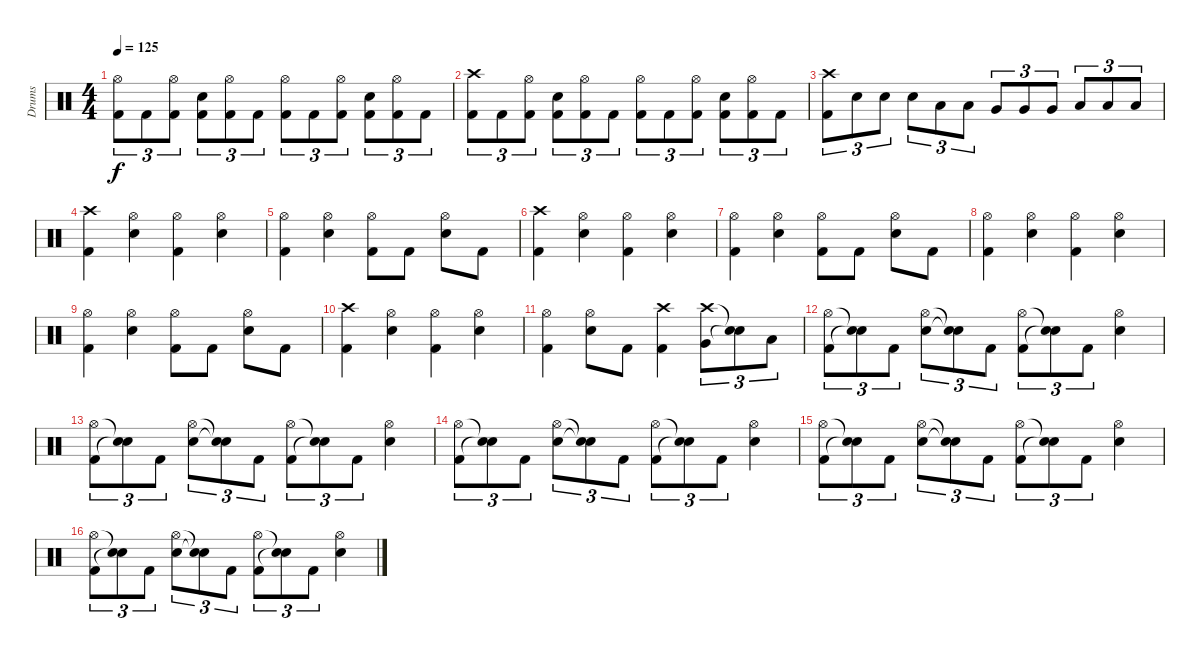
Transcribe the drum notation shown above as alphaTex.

\track ("Drums" "Drums") {instrument percussion}
\staff {score}
\articulation defaults
\ts (4 4)
\tempo 125
\clef neutral
\ks c
("Hi-Hat (open)" "Kick (hit) 2").8{tu (3 2) dy f} "Kick (hit) 2".8{tu (3 2)} ("Hi-Hat (open)" "Kick (hit) 2").8{tu (3 2)} ("Snare (hit) 2" "Kick (hit) 2").8{tu (3 2)} ("Hi-Hat (open)" "Kick (hit) 2").8{tu (3 2)} "Kick (hit) 2".8{tu (3 2)} ("Hi-Hat (open)" "Kick (hit) 2").8{tu (3 2)} "Kick (hit) 2".8{tu (3 2)} ("Hi-Hat (open)" "Kick (hit) 2").8{tu (3 2)} ("Snare (hit) 2" "Kick (hit) 2").8{tu (3 2)} ("Hi-Hat (open)" "Kick (hit) 2").8{tu (3 2)} "Kick (hit) 2".8{tu (3 2)} |
("Crash high (hit)" "Kick (hit) 2").8{tu (3 2)} "Kick (hit) 2".8{tu (3 2)} ("Hi-Hat (open)" "Kick (hit) 2").8{tu (3 2)} ("Snare (hit) 2" "Kick (hit) 2").8{tu (3 2)} ("Hi-Hat (open)" "Kick (hit) 2").8{tu (3 2)} "Kick (hit) 2".8{tu (3 2)} ("Hi-Hat (open)" "Kick (hit) 2").8{tu (3 2)} "Kick (hit) 2".8{tu (3 2)} ("Hi-Hat (open)" "Kick (hit) 2").8{tu (3 2)} ("Snare (hit) 2" "Kick (hit) 2").8{tu (3 2)} ("Hi-Hat (open)" "Kick (hit) 2").8{tu (3 2)} "Kick (hit) 2".8{tu (3 2)} |
("Crash high (hit)" "Kick (hit) 2").8{tu (3 2)} "Snare (hit) 2".8{tu (3 2)} "Snare (hit) 2".8{tu (3 2)} "Snare (hit) 2".8{tu (3 2)} "Low Tom (hit)".8{tu (3 2)} "Low Tom (hit)".8{tu (3 2)} "Very Low Tom (hit)".8{tu (3 2)} "Very Low Tom (hit)".8{tu (3 2)} "Very Low Tom (hit)".8{tu (3 2)} "Low Floor Tom (hit)".8{tu (3 2)} "Low Floor Tom (hit)".8{tu (3 2)} "Low Floor Tom (hit)".8{tu (3 2)} |
("Crash high (hit)" "Kick (hit) 2").4 ("Hi-Hat (open)" "Snare (hit) 2").4 ("Hi-Hat (open)" "Kick (hit) 2").4 ("Hi-Hat (open)" "Snare (hit) 2").4 |
("Hi-Hat (open)" "Kick (hit) 2").4 ("Hi-Hat (open)" "Snare (hit) 2").4 ("Hi-Hat (open)" "Kick (hit) 2").8 "Kick (hit) 2".8 ("Hi-Hat (open)" "Snare (hit) 2").8 "Kick (hit) 2".8 |
("Crash high (hit)" "Kick (hit) 2").4 ("Hi-Hat (open)" "Snare (hit) 2").4 ("Hi-Hat (open)" "Kick (hit) 2").4 ("Hi-Hat (open)" "Snare (hit) 2").4 |
("Hi-Hat (open)" "Kick (hit) 2").4 ("Hi-Hat (open)" "Snare (hit) 2").4 ("Hi-Hat (open)" "Kick (hit) 2").8 "Kick (hit) 2".8 ("Hi-Hat (open)" "Snare (hit) 2").8 "Kick (hit) 2".8 |
("Hi-Hat (open)" "Kick (hit) 2").4 ("Hi-Hat (open)" "Snare (hit) 2").4 ("Hi-Hat (open)" "Kick (hit) 2").4 ("Hi-Hat (open)" "Snare (hit) 2").4 |
("Hi-Hat (open)" "Kick (hit) 2").4 ("Hi-Hat (open)" "Snare (hit) 2").4 ("Hi-Hat (open)" "Kick (hit) 2").8 "Kick (hit) 2".8 ("Hi-Hat (open)" "Snare (hit) 2").8 "Kick (hit) 2".8 |
("Crash high (hit)" "Kick (hit) 2").4 ("Hi-Hat (open)" "Snare (hit) 2").4 ("Hi-Hat (open)" "Kick (hit) 2").4 ("Hi-Hat (open)" "Snare (hit) 2").4 |
("Hi-Hat (open)" "Kick (hit) 2").4 ("Hi-Hat (open)" "Snare (hit) 2").8 "Kick (hit) 2".8 ("Crash high (hit)" "Kick (hit) 2").4 ("Crash high (hit)" "Very Low Tom (hit)").8{tu (3 2)} ("Snare (hit)"{t} "Snare (hit)"{t}).8{tu (3 2)} "Low Floor Tom (hit)".8{tu (3 2)} |
("Hi-Hat (open)" "Kick (hit) 2").8{tu (3 2)} ("Snare (hit)"{t} "Snare (hit)"{t}).8{tu (3 2)} "Kick (hit) 2".8{tu (3 2)} ("Hi-Hat (open)" "Snare (hit) 2").8{tu (3 2)} ("Snare (hit)"{t} "Snare (hit)"{t}).8{tu (3 2)} "Kick (hit) 2".8{tu (3 2)} ("Hi-Hat (open)" "Kick (hit) 2").8{tu (3 2)} ("Snare (hit)"{t} "Snare (hit)"{t}).8{tu (3 2)} "Kick (hit) 2".8{tu (3 2)} ("Hi-Hat (open)" "Snare (hit) 2").4 |
("Hi-Hat (open)" "Kick (hit) 2").8{tu (3 2)} ("Snare (hit)"{t} "Snare (hit)"{t}).8{tu (3 2)} "Kick (hit) 2".8{tu (3 2)} ("Hi-Hat (open)" "Snare (hit) 2").8{tu (3 2)} ("Snare (hit)"{t} "Snare (hit)"{t}).8{tu (3 2)} "Kick (hit) 2".8{tu (3 2)} ("Hi-Hat (open)" "Kick (hit) 2").8{tu (3 2)} ("Snare (hit)"{t} "Snare (hit)"{t}).8{tu (3 2)} "Kick (hit) 2".8{tu (3 2)} ("Hi-Hat (open)" "Snare (hit) 2").4 |
("Hi-Hat (open)" "Kick (hit) 2").8{tu (3 2)} ("Snare (hit)"{t} "Snare (hit)"{t}).8{tu (3 2)} "Kick (hit) 2".8{tu (3 2)} ("Hi-Hat (open)" "Snare (hit) 2").8{tu (3 2)} ("Snare (hit)"{t} "Snare (hit)"{t}).8{tu (3 2)} "Kick (hit) 2".8{tu (3 2)} ("Hi-Hat (open)" "Kick (hit) 2").8{tu (3 2)} ("Snare (hit)"{t} "Snare (hit)"{t}).8{tu (3 2)} "Kick (hit) 2".8{tu (3 2)} ("Hi-Hat (open)" "Snare (hit) 2").4 |
("Hi-Hat (open)" "Kick (hit) 2").8{tu (3 2)} ("Snare (hit)"{t} "Snare (hit)"{t}).8{tu (3 2)} "Kick (hit) 2".8{tu (3 2)} ("Hi-Hat (open)" "Snare (hit) 2").8{tu (3 2)} ("Snare (hit)"{t} "Snare (hit)"{t}).8{tu (3 2)} "Kick (hit) 2".8{tu (3 2)} ("Hi-Hat (open)" "Kick (hit) 2").8{tu (3 2)} ("Snare (hit)"{t} "Snare (hit)"{t}).8{tu (3 2)} "Kick (hit) 2".8{tu (3 2)} ("Hi-Hat (open)" "Snare (hit) 2").4 |
("Hi-Hat (open)" "Kick (hit) 2").8{tu (3 2)} ("Snare (hit)"{t} "Snare (hit)"{t}).8{tu (3 2)} "Kick (hit) 2".8{tu (3 2)} ("Hi-Hat (open)" "Snare (hit) 2").8{tu (3 2)} ("Snare (hit)"{t} "Snare (hit)"{t}).8{tu (3 2)} "Kick (hit) 2".8{tu (3 2)} ("Hi-Hat (open)" "Kick (hit) 2").8{tu (3 2)} ("Snare (hit)"{t} "Snare (hit)"{t}).8{tu (3 2)} "Kick (hit) 2".8{tu (3 2)} ("Hi-Hat (open)" "Snare (hit) 2").4
